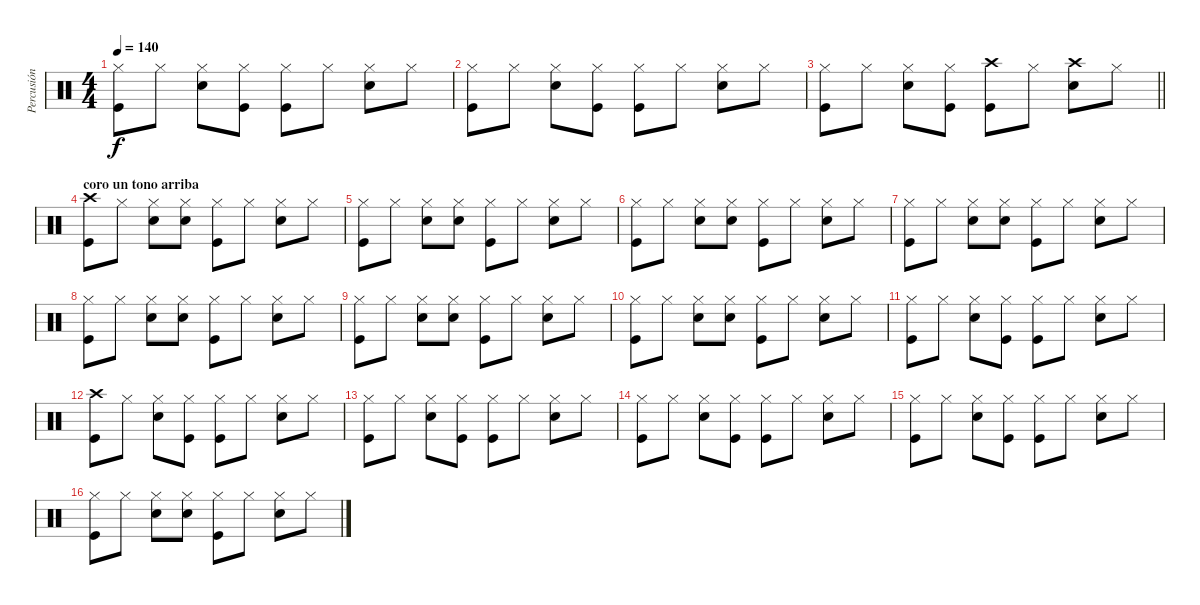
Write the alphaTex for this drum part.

\track ("Percusión" "Percusión") {instrument percussion}
\staff {score}
\articulation defaults
\ts (4 4)
\tempo 140
\clef neutral
\ks c
("Hi-Hat (closed)" "Kick (hit)").8{dy f} "Hi-Hat (closed)".8 ("Snare (hit) 2" "Hi-Hat (closed)").8 ("Kick (hit)" "Hi-Hat (closed)").8 ("Kick (hit)" "Hi-Hat (closed)").8 "Hi-Hat (closed)".8 ("Snare (hit) 2" "Hi-Hat (closed)").8 "Hi-Hat (closed)".8 |
("Hi-Hat (closed)" "Kick (hit)").8 "Hi-Hat (closed)".8 ("Snare (hit) 2" "Hi-Hat (closed)").8 ("Kick (hit)" "Hi-Hat (closed)").8 ("Kick (hit)" "Hi-Hat (closed)").8 "Hi-Hat (closed)".8 ("Snare (hit) 2" "Hi-Hat (closed)").8 "Hi-Hat (closed)".8 |
\barLineRight lightlight
("Hi-Hat (closed)" "Kick (hit)").8 "Hi-Hat (closed)".8 ("Snare (hit) 2" "Hi-Hat (closed)").8 ("Kick (hit)" "Hi-Hat (closed)").8 ("Kick (hit)" "Crash high (hit)").8 "Hi-Hat (closed)".8 ("Snare (hit) 2" "Crash high (hit)").8 "Hi-Hat (closed)".8 |
\section ("" "coro un tono arriba")
("Crash high (hit)" "Kick (hit)").8 "Hi-Hat (closed)".8 ("Snare (hit) 2" "Hi-Hat (closed)").8 ("Hi-Hat (closed)" "Snare (hit) 2").8 ("Kick (hit)" "Hi-Hat (closed)").8 "Hi-Hat (closed)".8 ("Snare (hit) 2" "Hi-Hat (closed)").8 "Hi-Hat (closed)".8 |
("Hi-Hat (closed)" "Kick (hit)").8 "Hi-Hat (closed)".8 ("Snare (hit) 2" "Hi-Hat (closed)").8 ("Hi-Hat (closed)" "Snare (hit) 2").8 ("Kick (hit)" "Hi-Hat (closed)").8 "Hi-Hat (closed)".8 ("Hi-Hat (closed)" "Snare (hit) 2").8 "Hi-Hat (closed)".8 |
("Hi-Hat (closed)" "Kick (hit)").8 "Hi-Hat (closed)".8 ("Snare (hit) 2" "Hi-Hat (closed)").8 ("Hi-Hat (closed)" "Snare (hit) 2").8 ("Kick (hit)" "Hi-Hat (closed)").8 "Hi-Hat (closed)".8 ("Hi-Hat (closed)" "Snare (hit) 2").8 "Hi-Hat (closed)".8 |
("Hi-Hat (closed)" "Kick (hit)").8 "Hi-Hat (closed)".8 ("Snare (hit) 2" "Hi-Hat (closed)").8 ("Hi-Hat (closed)" "Snare (hit) 2").8 ("Kick (hit)" "Hi-Hat (closed)").8 "Hi-Hat (closed)".8 ("Hi-Hat (closed)" "Snare (hit) 2").8 "Hi-Hat (closed)".8 |
("Hi-Hat (closed)" "Kick (hit)").8 "Hi-Hat (closed)".8 ("Snare (hit) 2" "Hi-Hat (closed)").8 ("Hi-Hat (closed)" "Snare (hit) 2").8 ("Kick (hit)" "Hi-Hat (closed)").8 "Hi-Hat (closed)".8 ("Hi-Hat (closed)" "Snare (hit) 2").8 "Hi-Hat (closed)".8 |
("Hi-Hat (closed)" "Kick (hit)").8 "Hi-Hat (closed)".8 ("Snare (hit) 2" "Hi-Hat (closed)").8 ("Hi-Hat (closed)" "Snare (hit) 2").8 ("Kick (hit)" "Hi-Hat (closed)").8 "Hi-Hat (closed)".8 ("Hi-Hat (closed)" "Snare (hit) 2").8 "Hi-Hat (closed)".8 |
("Hi-Hat (closed)" "Kick (hit)").8 "Hi-Hat (closed)".8 ("Snare (hit) 2" "Hi-Hat (closed)").8 ("Hi-Hat (closed)" "Snare (hit) 2").8 ("Kick (hit)" "Hi-Hat (closed)").8 "Hi-Hat (closed)".8 ("Hi-Hat (closed)" "Snare (hit) 2").8 "Hi-Hat (closed)".8 |
("Hi-Hat (closed)" "Kick (hit)").8 "Hi-Hat (closed)".8 ("Snare (hit) 2" "Hi-Hat (closed)").8 ("Kick (hit)" "Hi-Hat (closed)").8 ("Kick (hit)" "Hi-Hat (closed)").8 "Hi-Hat (closed)".8 ("Hi-Hat (closed)" "Snare (hit) 2").8 "Hi-Hat (closed)".8 |
("Crash high (hit)" "Kick (hit)").8 "Hi-Hat (closed)".8 ("Snare (hit) 2" "Hi-Hat (closed)").8 ("Kick (hit)" "Hi-Hat (closed)").8 ("Kick (hit)" "Hi-Hat (closed)").8 "Hi-Hat (closed)".8 ("Hi-Hat (closed)" "Snare (hit) 2").8 "Hi-Hat (closed)".8 |
("Hi-Hat (closed)" "Kick (hit)").8 "Hi-Hat (closed)".8 ("Snare (hit) 2" "Hi-Hat (closed)").8 ("Kick (hit)" "Hi-Hat (closed)").8 ("Kick (hit)" "Hi-Hat (closed)").8 "Hi-Hat (closed)".8 ("Hi-Hat (closed)" "Snare (hit) 2").8 "Hi-Hat (closed)".8 |
("Hi-Hat (closed)" "Kick (hit)").8 "Hi-Hat (closed)".8 ("Snare (hit) 2" "Hi-Hat (closed)").8 ("Kick (hit)" "Hi-Hat (closed)").8 ("Kick (hit)" "Hi-Hat (closed)").8 "Hi-Hat (closed)".8 ("Hi-Hat (closed)" "Snare (hit) 2").8 "Hi-Hat (closed)".8 |
("Hi-Hat (closed)" "Kick (hit)").8 "Hi-Hat (closed)".8 ("Snare (hit) 2" "Hi-Hat (closed)").8 ("Kick (hit)" "Hi-Hat (closed)").8 ("Kick (hit)" "Hi-Hat (closed)").8 "Hi-Hat (closed)".8 ("Hi-Hat (closed)" "Snare (hit) 2").8 "Hi-Hat (closed)".8 |
("Hi-Hat (closed)" "Kick (hit)").8 "Hi-Hat (closed)".8 ("Snare (hit) 2" "Hi-Hat (closed)").8 ("Hi-Hat (closed)" "Snare (hit) 2").8 ("Kick (hit)" "Hi-Hat (closed)").8 "Hi-Hat (closed)".8 ("Hi-Hat (closed)" "Snare (hit) 2").8 "Hi-Hat (closed)".8
